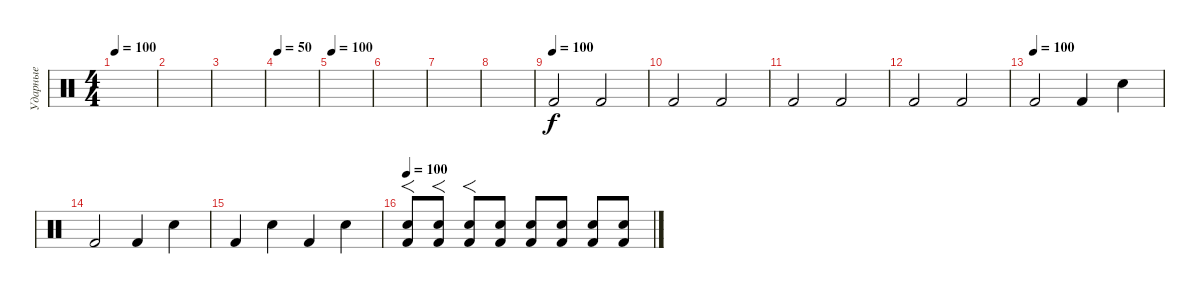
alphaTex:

\track ("Ударные" "Ударные") {instrument percussion}
\staff {score}
\articulation defaults
\ts (4 4)
\tempo 100
\clef neutral
\ks c
|
|
|
\tempo 50
|
\tempo 100
|
|
|
|
\tempo (100)
"Kick (hit) 2".2 "Kick (hit) 2".2 |
"Kick (hit) 2".2 "Kick (hit) 2".2 |
"Kick (hit) 2".2 "Kick (hit) 2".2 |
"Kick (hit) 2".2 "Kick (hit) 2".2 |
\tempo (100)
"Kick (hit) 2".2 "Kick (hit) 2".4 "Electric Snare (hit)".4 |
"Kick (hit) 2".2 "Kick (hit) 2".4 "Electric Snare (hit)".4 |
"Kick (hit) 2".4 "Electric Snare (hit)".4 "Kick (hit) 2".4 "Electric Snare (hit)".4 |
\tempo 100
("Electric Snare (hit)" "Kick (hit) 2").8{f volume 8} ("Electric Snare (hit)" "Kick (hit) 2").8{f volume 8} ("Electric Snare (hit)" "Kick (hit) 2").8{f volume 11} ("Electric Snare (hit)" "Kick (hit) 2").8{volume 10} ("Electric Snare (hit)" "Kick (hit) 2").8{volume 12} ("Electric Snare (hit)" "Kick (hit) 2").8{volume 16} ("Electric Snare (hit)" "Kick (hit) 2").8{volume 16} ("Electric Snare (hit)" "Kick (hit) 2").8{volume 16}
